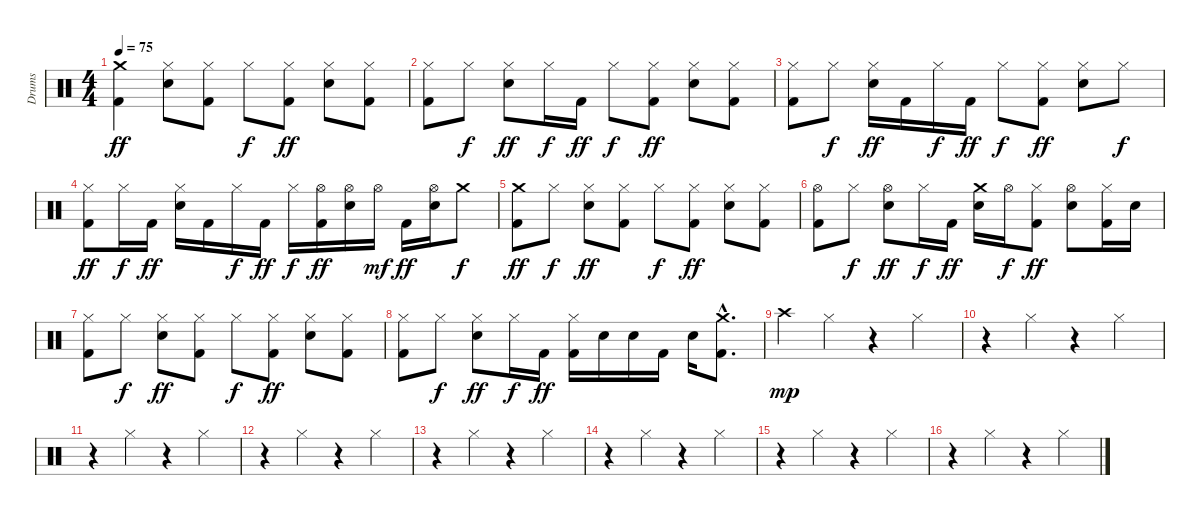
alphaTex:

\track ("Drums" "Drums") {instrument percussion}
\staff {score}
\articulation defaults
\ts (4 4)
\tempo 75
\clef neutral
\ks c
("Crash medium (hit)" "Kick (hit) 2").4{dy ff} ("Hi-Hat (closed)" "Electric Snare (hit)").8 ("Hi-Hat (closed)" "Kick (hit) 2").8 "Hi-Hat (closed)".8{dy f} ("Hi-Hat (closed)" "Kick (hit) 2").8{dy ff} ("Hi-Hat (closed)" "Electric Snare (hit)").8 ("Hi-Hat (closed)" "Kick (hit) 2").8 |
("Hi-Hat (closed)" "Kick (hit) 2").8 "Hi-Hat (closed)".8{dy f} ("Hi-Hat (closed)" "Electric Snare (hit)").8{dy ff} "Hi-Hat (closed)".16{dy f} "Kick (hit) 2".16{dy ff} "Hi-Hat (closed)".8{dy f} ("Hi-Hat (closed)" "Kick (hit) 2").8{dy ff} ("Hi-Hat (closed)" "Electric Snare (hit)").8 ("Hi-Hat (closed)" "Kick (hit) 2").8 |
("Hi-Hat (closed)" "Kick (hit) 2").8 "Hi-Hat (closed)".8{dy f} ("Hi-Hat (closed)" "Electric Snare (hit)").16{dy ff} "Kick (hit) 2".16 "Hi-Hat (closed)".16{dy f} "Kick (hit) 2".16{dy ff} "Hi-Hat (closed)".8{dy f} ("Hi-Hat (closed)" "Kick (hit) 2").8{dy ff} ("Hi-Hat (closed)" "Electric Snare (hit)").8 "Hi-Hat (closed)".8{dy f} |
("Hi-Hat (closed)" "Kick (hit) 2").8{dy ff} "Hi-Hat (closed)".16{dy f} "Kick (hit) 2".16{dy ff} ("Hi-Hat (closed)" "Electric Snare (hit)").16 "Kick (hit) 2".16 "Hi-Hat (closed)".16{dy f} "Kick (hit) 2".16{dy ff} "Hi-Hat (closed)".16{dy f} ("Hi-Hat (open)" "Kick (hit) 2").16{dy ff} ("Hi-Hat (open)" "Electric Snare (hit)").16 "Hi-Hat (open)".16{dy mf} "Kick (hit) 2".16{dy ff} ("Hi-Hat (open)" "Electric Snare (hit)").16 "Crash medium (hit)".8{dy f} |
("Crash medium (hit)" "Kick (hit) 2").8{dy ff} "Hi-Hat (closed)".8{dy f} ("Hi-Hat (closed)" "Electric Snare (hit)").8{dy ff} ("Hi-Hat (closed)" "Kick (hit) 2").8 "Hi-Hat (closed)".8{dy f} ("Hi-Hat (closed)" "Kick (hit) 2").8{dy ff} ("Hi-Hat (closed)" "Electric Snare (hit)").8 ("Hi-Hat (closed)" "Kick (hit) 2").8 |
("Hi-Hat (open)" "Kick (hit) 2").8 "Hi-Hat (closed)".8{dy f} ("Hi-Hat (open)" "Electric Snare (hit)").8{dy ff} "Hi-Hat (closed)".16{dy f} "Kick (hit) 2".16{dy ff} ("Crash medium (hit)" "Electric Snare (hit)").16 "Hi-Hat (open)".16{dy f} ("Hi-Hat (closed)" "Kick (hit) 2").8{dy ff} ("Hi-Hat (open)" "Electric Snare (hit)").8 ("Hi-Hat (closed)" "Kick (hit) 2").16 "Electric Snare (hit)".16 |
("Hi-Hat (closed)" "Kick (hit) 2").8 "Hi-Hat (closed)".8{dy f} ("Hi-Hat (closed)" "Electric Snare (hit)").8{dy ff} ("Hi-Hat (closed)" "Kick (hit) 2").8 "Hi-Hat (closed)".8{dy f} ("Hi-Hat (closed)" "Kick (hit) 2").8{dy ff} ("Hi-Hat (closed)" "Electric Snare (hit)").8 ("Hi-Hat (closed)" "Kick (hit) 2").8 |
("Hi-Hat (closed)" "Kick (hit) 2").8 "Hi-Hat (closed)".8{dy f} ("Hi-Hat (closed)" "Electric Snare (hit)").8{dy ff} "Hi-Hat (closed)".16{dy f} "Kick (hit) 2".16{dy ff} ("Hi-Hat (closed)" "Kick (hit) 2").16 "Electric Snare (hit)".16 "Electric Snare (hit)".16 "Kick (hit) 2".16 "Electric Snare (hit)".16 ("Crash medium (hit)"{hac} "Kick (hit) 2"{hac}).8{d} |
"Crash high (hit)".4{dy mp} "Hi-Hat (closed)".4 r.4 "Hi-Hat (closed)".4 |
r.4 "Hi-Hat (closed)".4 r.4 "Hi-Hat (closed)".4 |
r.4 "Hi-Hat (closed)".4 r.4 "Hi-Hat (closed)".4 |
r.4 "Hi-Hat (closed)".4 r.4 "Hi-Hat (closed)".4 |
r.4 "Hi-Hat (closed)".4 r.4 "Hi-Hat (closed)".4 |
r.4 "Hi-Hat (closed)".4 r.4 "Hi-Hat (closed)".4 |
r.4 "Hi-Hat (closed)".4 r.4 "Hi-Hat (closed)".4 |
r.4 "Hi-Hat (closed)".4 r.4 "Hi-Hat (closed)".4
